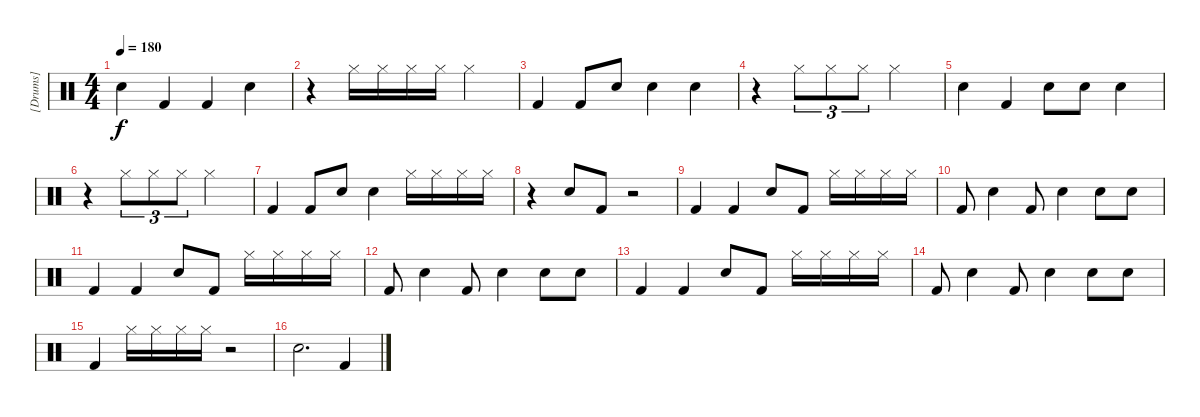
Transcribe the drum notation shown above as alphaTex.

\track ("[Drums]" "[Drums]") {instrument percussion}
\staff {score}
\articulation defaults
\ts (4 4)
\tempo 180
\clef neutral
\ks c "Electric Snare (hit)".4{dy f} "Kick (hit) 2".4 "Kick (hit) 2".4 "Electric Snare (hit)".4
|
r.4 "Hi-Hat (closed)".16 "Hi-Hat (closed)".16 "Hi-Hat (closed)".16 "Hi-Hat (closed)".16 "Hi-Hat (closed)".2 |
"Kick (hit) 2".4 "Kick (hit) 2".8 "Electric Snare (hit)".8 "Electric Snare (hit)".4 "Electric Snare (hit)".4 |
r.4 "Hi-Hat (closed)".8{tu (3 2)} "Hi-Hat (closed)".8{tu (3 2)} "Hi-Hat (closed)".8{tu (3 2)} "Hi-Hat (closed)".2 |
"Electric Snare (hit)".4 "Kick (hit) 2".4 "Electric Snare (hit)".8 "Electric Snare (hit)".8 "Electric Snare (hit)".4 |
r.4 "Hi-Hat (closed)".8{tu (3 2)} "Hi-Hat (closed)".8{tu (3 2)} "Hi-Hat (closed)".8{tu (3 2)} "Hi-Hat (closed)".2 |
"Kick (hit) 2".4 "Kick (hit) 2".8 "Electric Snare (hit)".8 "Electric Snare (hit)".4 "Hi-Hat (closed)".16 "Hi-Hat (closed)".16 "Hi-Hat (closed)".16 "Hi-Hat (closed)".16 |
r.4 "Electric Snare (hit)".8 "Kick (hit) 2".8 r.2 |
"Kick (hit) 2".4 "Kick (hit) 2".4 "Electric Snare (hit)".8 "Kick (hit) 2".8 "Hi-Hat (closed)".16 "Hi-Hat (closed)".16 "Hi-Hat (closed)".16 "Hi-Hat (closed)".16 |
"Kick (hit) 2".8 "Electric Snare (hit)".4 "Kick (hit) 2".8 "Electric Snare (hit)".4 "Electric Snare (hit)".8 "Electric Snare (hit)".8 |
"Kick (hit) 2".4 "Kick (hit) 2".4 "Electric Snare (hit)".8 "Kick (hit) 2".8 "Hi-Hat (closed)".16 "Hi-Hat (closed)".16 "Hi-Hat (closed)".16 "Hi-Hat (closed)".16 |
"Kick (hit) 2".8 "Electric Snare (hit)".4 "Kick (hit) 2".8 "Electric Snare (hit)".4 "Electric Snare (hit)".8 "Electric Snare (hit)".8 |
"Kick (hit) 2".4 "Kick (hit) 2".4 "Electric Snare (hit)".8 "Kick (hit) 2".8 "Hi-Hat (closed)".16 "Hi-Hat (closed)".16 "Hi-Hat (closed)".16 "Hi-Hat (closed)".16 |
"Kick (hit) 2".8 "Electric Snare (hit)".4 "Kick (hit) 2".8 "Electric Snare (hit)".4 "Electric Snare (hit)".8 "Electric Snare (hit)".8 |
"Kick (hit) 2".4 "Hi-Hat (closed)".16 "Hi-Hat (closed)".16 "Hi-Hat (closed)".16 "Hi-Hat (closed)".16 r.2 |
"Electric Snare (hit)".2{d} "Kick (hit) 2".4
